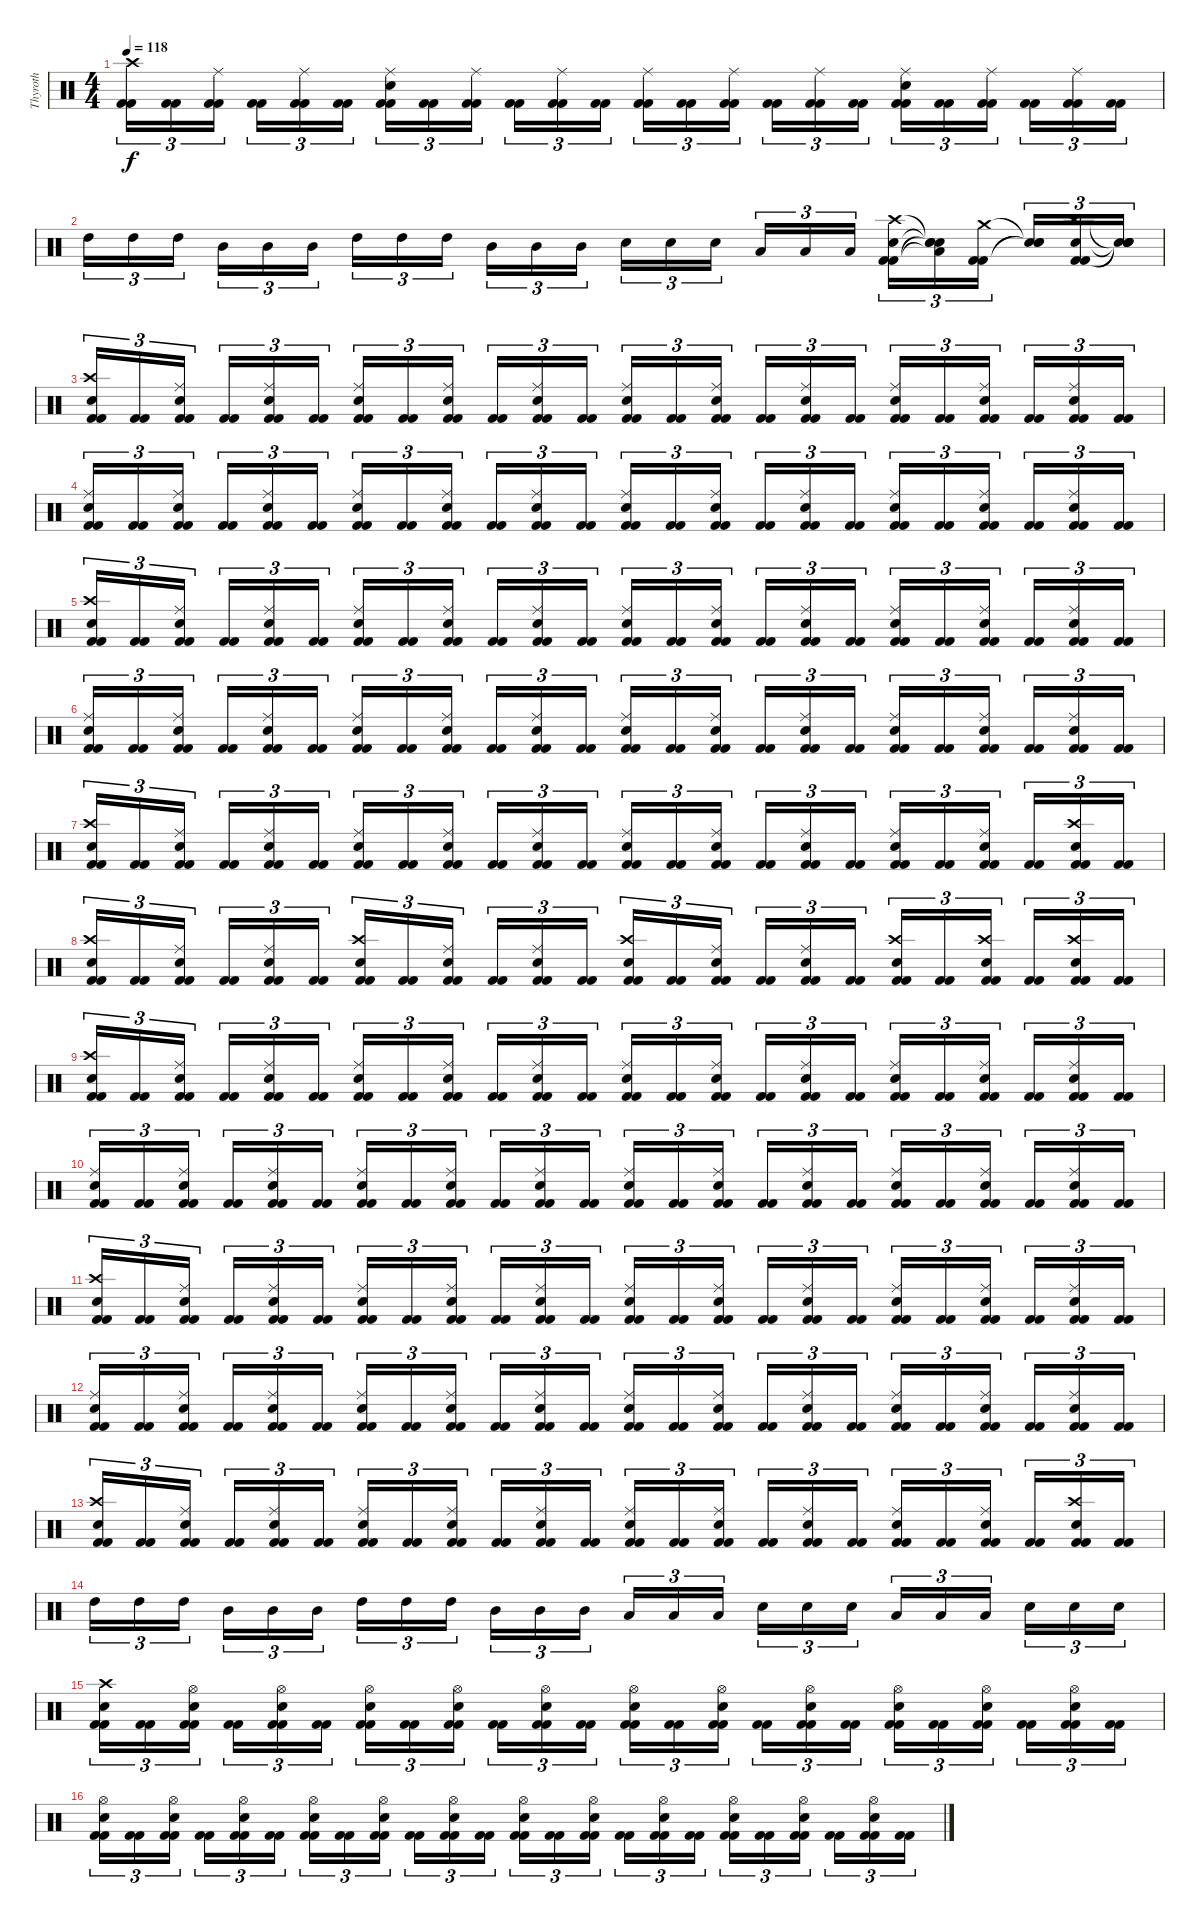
\track ("Thyroth" "Thyroth") {instrument percussion}
\staff {score}
\articulation defaults
\ts (4 4)
\tempo 118
\clef neutral
\ks c
("Kick (hit) 2" "Kick (hit) 2" "Crash high (hit)").16{tu (3 2) dy f} ("Kick (hit) 2" "Kick (hit) 2").16{tu (3 2)} ("Kick (hit) 2" "Kick (hit) 2" "Ride (middle)").16{tu (3 2)} ("Kick (hit) 2" "Kick (hit) 2").16{tu (3 2)} ("Kick (hit) 2" "Kick (hit) 2" "Ride (middle)").16{tu (3 2)} ("Kick (hit) 2" "Kick (hit) 2").16{tu (3 2)} ("Kick (hit) 2" "Kick (hit) 2" "Snare (hit) 2" "Ride (middle)").16{tu (3 2)} ("Kick (hit) 2" "Kick (hit) 2").16{tu (3 2)} ("Kick (hit) 2" "Kick (hit) 2" "Ride (middle)").16{tu (3 2)} ("Kick (hit) 2" "Kick (hit) 2").16{tu (3 2)} ("Kick (hit) 2" "Kick (hit) 2" "Ride (middle)").16{tu (3 2)} ("Kick (hit) 2" "Kick (hit) 2").16{tu (3 2)} ("Kick (hit) 2" "Kick (hit) 2" "Ride (middle)").16{tu (3 2)} ("Kick (hit) 2" "Kick (hit) 2").16{tu (3 2)} ("Kick (hit) 2" "Kick (hit) 2" "Ride (middle)").16{tu (3 2)} ("Kick (hit) 2" "Kick (hit) 2").16{tu (3 2)} ("Kick (hit) 2" "Kick (hit) 2" "Ride (middle)").16{tu (3 2)} ("Kick (hit) 2" "Kick (hit) 2").16{tu (3 2)} ("Kick (hit) 2" "Kick (hit) 2" "Snare (hit) 2" "Ride (middle)").16{tu (3 2)} ("Kick (hit) 2" "Kick (hit) 2").16{tu (3 2)} ("Kick (hit) 2" "Kick (hit) 2" "Ride (middle)").16{tu (3 2)} ("Kick (hit) 2" "Kick (hit) 2").16{tu (3 2)} ("Kick (hit) 2" "Kick (hit) 2" "Ride (middle)").16{tu (3 2)} ("Kick (hit) 2" "Kick (hit) 2").16{tu (3 2)} |
"High Tom (hit)".16{tu (3 2)} "High Tom (hit)".16{tu (3 2)} "High Tom (hit)".16{tu (3 2)} "Mid Tom (hit)".16{tu (3 2)} "Mid Tom (hit)".16{tu (3 2)} "Mid Tom (hit)".16{tu (3 2)} "High Tom (hit)".16{tu (3 2)} "High Tom (hit)".16{tu (3 2)} "High Tom (hit)".16{tu (3 2)} "Mid Tom (hit)".16{tu (3 2)} "Mid Tom (hit)".16{tu (3 2)} "Mid Tom (hit)".16{tu (3 2)} "Snare (hit) 2".16{tu (3 2)} "Snare (hit) 2".16{tu (3 2)} "Snare (hit) 2".16{tu (3 2)} "Low Tom (hit)".16{tu (3 2)} "Low Tom (hit)".16{tu (3 2)} "Low Tom (hit)".16{tu (3 2)} ("Kick (hit) 2" "Kick (hit) 2" "Snare (hit) 2" "Crash high (hit)").16{tu (3 2)} ("Snare (hit)"{t} "Low Tom (hit)"{t} "Snare (hit)"{t} "Snare (hit)"{t}).16{tu (3 2)} ("Kick (hit) 2" "Kick (hit) 2" "Crash medium (hit)").16{tu (3 2)} ("Snare (hit)"{t} "Snare (hit) 2"{t} "Snare (hit)"{t}).16{tu (3 2)} ("Kick (hit) 2" "Kick (hit) 2" "Snare (hit) 2" "Crash high (hit)").16{tu (3 2)} ("Snare (hit)"{t} "Snare (hit) 2"{t} "Snare (hit)"{t} "Snare (hit)"{t}).16{tu (3 2)} |
("Kick (hit) 2" "Kick (hit) 2" "Snare (hit) 2" "Crash high (hit)").16{tu (3 2)} ("Kick (hit) 2" "Kick (hit) 2").16{tu (3 2)} ("Kick (hit) 2" "Kick (hit) 2" "Snare (hit) 2" "Ride (middle)").16{tu (3 2)} ("Kick (hit) 2" "Kick (hit) 2").16{tu (3 2)} ("Kick (hit) 2" "Kick (hit) 2" "Snare (hit) 2" "Ride (middle)").16{tu (3 2)} ("Kick (hit) 2" "Kick (hit) 2").16{tu (3 2)} ("Kick (hit) 2" "Kick (hit) 2" "Snare (hit) 2" "Ride (middle)").16{tu (3 2)} ("Kick (hit) 2" "Kick (hit) 2").16{tu (3 2)} ("Kick (hit) 2" "Kick (hit) 2" "Snare (hit) 2" "Ride (middle)").16{tu (3 2)} ("Kick (hit) 2" "Kick (hit) 2").16{tu (3 2)} ("Kick (hit) 2" "Kick (hit) 2" "Snare (hit) 2" "Ride (middle)").16{tu (3 2)} ("Kick (hit) 2" "Kick (hit) 2").16{tu (3 2)} ("Kick (hit) 2" "Kick (hit) 2" "Snare (hit) 2" "Ride (middle)").16{tu (3 2)} ("Kick (hit) 2" "Kick (hit) 2").16{tu (3 2)} ("Kick (hit) 2" "Kick (hit) 2" "Snare (hit) 2" "Ride (middle)").16{tu (3 2)} ("Kick (hit) 2" "Kick (hit) 2").16{tu (3 2)} ("Kick (hit) 2" "Kick (hit) 2" "Snare (hit) 2" "Ride (middle)").16{tu (3 2)} ("Kick (hit) 2" "Kick (hit) 2").16{tu (3 2)} ("Kick (hit) 2" "Kick (hit) 2" "Snare (hit) 2" "Ride (middle)").16{tu (3 2)} ("Kick (hit) 2" "Kick (hit) 2").16{tu (3 2)} ("Kick (hit) 2" "Kick (hit) 2" "Snare (hit) 2" "Ride (middle)").16{tu (3 2)} ("Kick (hit) 2" "Kick (hit) 2").16{tu (3 2)} ("Kick (hit) 2" "Kick (hit) 2" "Snare (hit) 2" "Ride (middle)").16{tu (3 2)} ("Kick (hit) 2" "Kick (hit) 2").16{tu (3 2)} |
("Kick (hit) 2" "Kick (hit) 2" "Snare (hit) 2" "Ride (middle)").16{tu (3 2)} ("Kick (hit) 2" "Kick (hit) 2").16{tu (3 2)} ("Kick (hit) 2" "Kick (hit) 2" "Snare (hit) 2" "Ride (middle)").16{tu (3 2)} ("Kick (hit) 2" "Kick (hit) 2").16{tu (3 2)} ("Kick (hit) 2" "Kick (hit) 2" "Snare (hit) 2" "Ride (middle)").16{tu (3 2)} ("Kick (hit) 2" "Kick (hit) 2").16{tu (3 2)} ("Kick (hit) 2" "Kick (hit) 2" "Snare (hit) 2" "Ride (middle)").16{tu (3 2)} ("Kick (hit) 2" "Kick (hit) 2").16{tu (3 2)} ("Kick (hit) 2" "Kick (hit) 2" "Snare (hit) 2" "Ride (middle)").16{tu (3 2)} ("Kick (hit) 2" "Kick (hit) 2").16{tu (3 2)} ("Kick (hit) 2" "Kick (hit) 2" "Snare (hit) 2" "Ride (middle)").16{tu (3 2)} ("Kick (hit) 2" "Kick (hit) 2").16{tu (3 2)} ("Kick (hit) 2" "Kick (hit) 2" "Snare (hit) 2" "Ride (middle)").16{tu (3 2)} ("Kick (hit) 2" "Kick (hit) 2").16{tu (3 2)} ("Kick (hit) 2" "Kick (hit) 2" "Snare (hit) 2" "Ride (middle)").16{tu (3 2)} ("Kick (hit) 2" "Kick (hit) 2").16{tu (3 2)} ("Kick (hit) 2" "Kick (hit) 2" "Snare (hit) 2" "Ride (middle)").16{tu (3 2)} ("Kick (hit) 2" "Kick (hit) 2").16{tu (3 2)} ("Kick (hit) 2" "Kick (hit) 2" "Snare (hit) 2" "Ride (middle)").16{tu (3 2)} ("Kick (hit) 2" "Kick (hit) 2").16{tu (3 2)} ("Kick (hit) 2" "Kick (hit) 2" "Snare (hit) 2" "Ride (middle)").16{tu (3 2)} ("Kick (hit) 2" "Kick (hit) 2").16{tu (3 2)} ("Kick (hit) 2" "Kick (hit) 2" "Snare (hit) 2" "Ride (middle)").16{tu (3 2)} ("Kick (hit) 2" "Kick (hit) 2").16{tu (3 2)} |
("Kick (hit) 2" "Kick (hit) 2" "Snare (hit) 2" "Crash high (hit)").16{tu (3 2)} ("Kick (hit) 2" "Kick (hit) 2").16{tu (3 2)} ("Kick (hit) 2" "Kick (hit) 2" "Snare (hit) 2" "Ride (middle)").16{tu (3 2)} ("Kick (hit) 2" "Kick (hit) 2").16{tu (3 2)} ("Kick (hit) 2" "Kick (hit) 2" "Snare (hit) 2" "Ride (middle)").16{tu (3 2)} ("Kick (hit) 2" "Kick (hit) 2").16{tu (3 2)} ("Kick (hit) 2" "Kick (hit) 2" "Snare (hit) 2" "Ride (middle)").16{tu (3 2)} ("Kick (hit) 2" "Kick (hit) 2").16{tu (3 2)} ("Kick (hit) 2" "Kick (hit) 2" "Snare (hit) 2" "Ride (middle)").16{tu (3 2)} ("Kick (hit) 2" "Kick (hit) 2").16{tu (3 2)} ("Kick (hit) 2" "Kick (hit) 2" "Snare (hit) 2" "Ride (middle)").16{tu (3 2)} ("Kick (hit) 2" "Kick (hit) 2").16{tu (3 2)} ("Kick (hit) 2" "Kick (hit) 2" "Snare (hit) 2" "Ride (middle)").16{tu (3 2)} ("Kick (hit) 2" "Kick (hit) 2").16{tu (3 2)} ("Kick (hit) 2" "Kick (hit) 2" "Snare (hit) 2" "Ride (middle)").16{tu (3 2)} ("Kick (hit) 2" "Kick (hit) 2").16{tu (3 2)} ("Kick (hit) 2" "Kick (hit) 2" "Snare (hit) 2" "Ride (middle)").16{tu (3 2)} ("Kick (hit) 2" "Kick (hit) 2").16{tu (3 2)} ("Kick (hit) 2" "Kick (hit) 2" "Snare (hit) 2" "Ride (middle)").16{tu (3 2)} ("Kick (hit) 2" "Kick (hit) 2").16{tu (3 2)} ("Kick (hit) 2" "Kick (hit) 2" "Snare (hit) 2" "Ride (middle)").16{tu (3 2)} ("Kick (hit) 2" "Kick (hit) 2").16{tu (3 2)} ("Kick (hit) 2" "Kick (hit) 2" "Snare (hit) 2" "Ride (middle)").16{tu (3 2)} ("Kick (hit) 2" "Kick (hit) 2").16{tu (3 2)} |
("Kick (hit) 2" "Kick (hit) 2" "Snare (hit) 2" "Ride (middle)").16{tu (3 2)} ("Kick (hit) 2" "Kick (hit) 2").16{tu (3 2)} ("Kick (hit) 2" "Kick (hit) 2" "Snare (hit) 2" "Ride (middle)").16{tu (3 2)} ("Kick (hit) 2" "Kick (hit) 2").16{tu (3 2)} ("Kick (hit) 2" "Kick (hit) 2" "Snare (hit) 2" "Ride (middle)").16{tu (3 2)} ("Kick (hit) 2" "Kick (hit) 2").16{tu (3 2)} ("Kick (hit) 2" "Kick (hit) 2" "Snare (hit) 2" "Ride (middle)").16{tu (3 2)} ("Kick (hit) 2" "Kick (hit) 2").16{tu (3 2)} ("Kick (hit) 2" "Kick (hit) 2" "Snare (hit) 2" "Ride (middle)").16{tu (3 2)} ("Kick (hit) 2" "Kick (hit) 2").16{tu (3 2)} ("Kick (hit) 2" "Kick (hit) 2" "Snare (hit) 2" "Ride (middle)").16{tu (3 2)} ("Kick (hit) 2" "Kick (hit) 2").16{tu (3 2)} ("Kick (hit) 2" "Kick (hit) 2" "Snare (hit) 2" "Ride (middle)").16{tu (3 2)} ("Kick (hit) 2" "Kick (hit) 2").16{tu (3 2)} ("Kick (hit) 2" "Kick (hit) 2" "Snare (hit) 2" "Ride (middle)").16{tu (3 2)} ("Kick (hit) 2" "Kick (hit) 2").16{tu (3 2)} ("Kick (hit) 2" "Kick (hit) 2" "Snare (hit) 2" "Ride (middle)").16{tu (3 2)} ("Kick (hit) 2" "Kick (hit) 2").16{tu (3 2)} ("Kick (hit) 2" "Kick (hit) 2" "Snare (hit) 2" "Ride (middle)").16{tu (3 2)} ("Kick (hit) 2" "Kick (hit) 2").16{tu (3 2)} ("Kick (hit) 2" "Kick (hit) 2" "Snare (hit) 2" "Ride (middle)").16{tu (3 2)} ("Kick (hit) 2" "Kick (hit) 2").16{tu (3 2)} ("Kick (hit) 2" "Kick (hit) 2" "Snare (hit) 2" "Ride (middle)").16{tu (3 2)} ("Kick (hit) 2" "Kick (hit) 2").16{tu (3 2)} |
("Kick (hit) 2" "Kick (hit) 2" "Snare (hit) 2" "Crash high (hit)").16{tu (3 2)} ("Kick (hit) 2" "Kick (hit) 2").16{tu (3 2)} ("Kick (hit) 2" "Kick (hit) 2" "Snare (hit) 2" "Ride (middle)").16{tu (3 2)} ("Kick (hit) 2" "Kick (hit) 2").16{tu (3 2)} ("Kick (hit) 2" "Kick (hit) 2" "Snare (hit) 2" "Ride (middle)").16{tu (3 2)} ("Kick (hit) 2" "Kick (hit) 2").16{tu (3 2)} ("Kick (hit) 2" "Kick (hit) 2" "Snare (hit) 2" "Ride (middle)").16{tu (3 2)} ("Kick (hit) 2" "Kick (hit) 2").16{tu (3 2)} ("Kick (hit) 2" "Kick (hit) 2" "Snare (hit) 2" "Ride (middle)").16{tu (3 2)} ("Kick (hit) 2" "Kick (hit) 2").16{tu (3 2)} ("Kick (hit) 2" "Kick (hit) 2" "Snare (hit) 2" "Ride (middle)").16{tu (3 2)} ("Kick (hit) 2" "Kick (hit) 2").16{tu (3 2)} ("Kick (hit) 2" "Kick (hit) 2" "Snare (hit) 2" "Ride (middle)").16{tu (3 2)} ("Kick (hit) 2" "Kick (hit) 2").16{tu (3 2)} ("Kick (hit) 2" "Kick (hit) 2" "Snare (hit) 2" "Ride (middle)").16{tu (3 2)} ("Kick (hit) 2" "Kick (hit) 2").16{tu (3 2)} ("Kick (hit) 2" "Kick (hit) 2" "Snare (hit) 2" "Ride (middle)").16{tu (3 2)} ("Kick (hit) 2" "Kick (hit) 2").16{tu (3 2)} ("Kick (hit) 2" "Kick (hit) 2" "Snare (hit) 2" "Ride (middle)").16{tu (3 2)} ("Kick (hit) 2" "Kick (hit) 2").16{tu (3 2)} ("Kick (hit) 2" "Kick (hit) 2" "Snare (hit) 2" "Ride (middle)").16{tu (3 2)} ("Kick (hit) 2" "Kick (hit) 2").16{tu (3 2)} ("Kick (hit) 2" "Kick (hit) 2" "Snare (hit) 2" "Crash high (hit)").16{tu (3 2)} ("Kick (hit) 2" "Kick (hit) 2").16{tu (3 2)} |
("Kick (hit) 2" "Kick (hit) 2" "Snare (hit) 2" "Crash high (hit)").16{tu (3 2)} ("Kick (hit) 2" "Kick (hit) 2").16{tu (3 2)} ("Kick (hit) 2" "Kick (hit) 2" "Snare (hit) 2" "Ride (middle)").16{tu (3 2)} ("Kick (hit) 2" "Kick (hit) 2").16{tu (3 2)} ("Kick (hit) 2" "Kick (hit) 2" "Snare (hit) 2" "Ride (middle)").16{tu (3 2)} ("Kick (hit) 2" "Kick (hit) 2").16{tu (3 2)} ("Kick (hit) 2" "Kick (hit) 2" "Snare (hit) 2" "Crash high (hit)").16{tu (3 2)} ("Kick (hit) 2" "Kick (hit) 2").16{tu (3 2)} ("Kick (hit) 2" "Kick (hit) 2" "Snare (hit) 2" "Ride (middle)").16{tu (3 2)} ("Kick (hit) 2" "Kick (hit) 2").16{tu (3 2)} ("Kick (hit) 2" "Kick (hit) 2" "Snare (hit) 2" "Ride (middle)").16{tu (3 2)} ("Kick (hit) 2" "Kick (hit) 2").16{tu (3 2)} ("Kick (hit) 2" "Kick (hit) 2" "Snare (hit) 2" "Crash high (hit)").16{tu (3 2)} ("Kick (hit) 2" "Kick (hit) 2").16{tu (3 2)} ("Kick (hit) 2" "Kick (hit) 2" "Snare (hit) 2" "Ride (middle)").16{tu (3 2)} ("Kick (hit) 2" "Kick (hit) 2").16{tu (3 2)} ("Kick (hit) 2" "Kick (hit) 2" "Snare (hit) 2" "Ride (middle)").16{tu (3 2)} ("Kick (hit) 2" "Kick (hit) 2").16{tu (3 2)} ("Kick (hit) 2" "Kick (hit) 2" "Snare (hit) 2" "Crash high (hit)").16{tu (3 2)} ("Kick (hit) 2" "Kick (hit) 2").16{tu (3 2)} ("Kick (hit) 2" "Kick (hit) 2" "Snare (hit) 2" "Crash high (hit)").16{tu (3 2)} ("Kick (hit) 2" "Kick (hit) 2").16{tu (3 2)} ("Kick (hit) 2" "Kick (hit) 2" "Snare (hit) 2" "Crash high (hit)").16{tu (3 2)} ("Kick (hit) 2" "Kick (hit) 2").16{tu (3 2)} |
("Kick (hit) 2" "Kick (hit) 2" "Snare (hit) 2" "Crash high (hit)").16{tu (3 2)} ("Kick (hit) 2" "Kick (hit) 2").16{tu (3 2)} ("Kick (hit) 2" "Kick (hit) 2" "Snare (hit) 2" "Ride (middle)").16{tu (3 2)} ("Kick (hit) 2" "Kick (hit) 2").16{tu (3 2)} ("Kick (hit) 2" "Kick (hit) 2" "Snare (hit) 2" "Ride (middle)").16{tu (3 2)} ("Kick (hit) 2" "Kick (hit) 2").16{tu (3 2)} ("Kick (hit) 2" "Kick (hit) 2" "Snare (hit) 2" "Ride (middle)").16{tu (3 2)} ("Kick (hit) 2" "Kick (hit) 2").16{tu (3 2)} ("Kick (hit) 2" "Kick (hit) 2" "Snare (hit) 2" "Ride (middle)").16{tu (3 2)} ("Kick (hit) 2" "Kick (hit) 2").16{tu (3 2)} ("Kick (hit) 2" "Kick (hit) 2" "Snare (hit) 2" "Ride (middle)").16{tu (3 2)} ("Kick (hit) 2" "Kick (hit) 2").16{tu (3 2)} ("Kick (hit) 2" "Kick (hit) 2" "Snare (hit) 2" "Ride (middle)").16{tu (3 2)} ("Kick (hit) 2" "Kick (hit) 2").16{tu (3 2)} ("Kick (hit) 2" "Kick (hit) 2" "Snare (hit) 2" "Ride (middle)").16{tu (3 2)} ("Kick (hit) 2" "Kick (hit) 2").16{tu (3 2)} ("Kick (hit) 2" "Kick (hit) 2" "Snare (hit) 2" "Ride (middle)").16{tu (3 2)} ("Kick (hit) 2" "Kick (hit) 2").16{tu (3 2)} ("Kick (hit) 2" "Kick (hit) 2" "Snare (hit) 2" "Ride (middle)").16{tu (3 2)} ("Kick (hit) 2" "Kick (hit) 2").16{tu (3 2)} ("Kick (hit) 2" "Kick (hit) 2" "Snare (hit) 2" "Ride (middle)").16{tu (3 2)} ("Kick (hit) 2" "Kick (hit) 2").16{tu (3 2)} ("Kick (hit) 2" "Kick (hit) 2" "Snare (hit) 2" "Ride (middle)").16{tu (3 2)} ("Kick (hit) 2" "Kick (hit) 2").16{tu (3 2)} |
("Kick (hit) 2" "Kick (hit) 2" "Snare (hit) 2" "Ride (middle)").16{tu (3 2)} ("Kick (hit) 2" "Kick (hit) 2").16{tu (3 2)} ("Kick (hit) 2" "Kick (hit) 2" "Snare (hit) 2" "Ride (middle)").16{tu (3 2)} ("Kick (hit) 2" "Kick (hit) 2").16{tu (3 2)} ("Kick (hit) 2" "Kick (hit) 2" "Snare (hit) 2" "Ride (middle)").16{tu (3 2)} ("Kick (hit) 2" "Kick (hit) 2").16{tu (3 2)} ("Kick (hit) 2" "Kick (hit) 2" "Snare (hit) 2" "Ride (middle)").16{tu (3 2)} ("Kick (hit) 2" "Kick (hit) 2").16{tu (3 2)} ("Kick (hit) 2" "Kick (hit) 2" "Snare (hit) 2" "Ride (middle)").16{tu (3 2)} ("Kick (hit) 2" "Kick (hit) 2").16{tu (3 2)} ("Kick (hit) 2" "Kick (hit) 2" "Snare (hit) 2" "Ride (middle)").16{tu (3 2)} ("Kick (hit) 2" "Kick (hit) 2").16{tu (3 2)} ("Kick (hit) 2" "Kick (hit) 2" "Snare (hit) 2" "Ride (middle)").16{tu (3 2)} ("Kick (hit) 2" "Kick (hit) 2").16{tu (3 2)} ("Kick (hit) 2" "Kick (hit) 2" "Snare (hit) 2" "Ride (middle)").16{tu (3 2)} ("Kick (hit) 2" "Kick (hit) 2").16{tu (3 2)} ("Kick (hit) 2" "Kick (hit) 2" "Snare (hit) 2" "Ride (middle)").16{tu (3 2)} ("Kick (hit) 2" "Kick (hit) 2").16{tu (3 2)} ("Kick (hit) 2" "Kick (hit) 2" "Snare (hit) 2" "Ride (middle)").16{tu (3 2)} ("Kick (hit) 2" "Kick (hit) 2").16{tu (3 2)} ("Kick (hit) 2" "Kick (hit) 2" "Snare (hit) 2" "Ride (middle)").16{tu (3 2)} ("Kick (hit) 2" "Kick (hit) 2").16{tu (3 2)} ("Kick (hit) 2" "Kick (hit) 2" "Snare (hit) 2" "Ride (middle)").16{tu (3 2)} ("Kick (hit) 2" "Kick (hit) 2").16{tu (3 2)} |
("Kick (hit) 2" "Kick (hit) 2" "Snare (hit) 2" "Crash high (hit)").16{tu (3 2)} ("Kick (hit) 2" "Kick (hit) 2").16{tu (3 2)} ("Kick (hit) 2" "Kick (hit) 2" "Snare (hit) 2" "Ride (middle)").16{tu (3 2)} ("Kick (hit) 2" "Kick (hit) 2").16{tu (3 2)} ("Kick (hit) 2" "Kick (hit) 2" "Snare (hit) 2" "Ride (middle)").16{tu (3 2)} ("Kick (hit) 2" "Kick (hit) 2").16{tu (3 2)} ("Kick (hit) 2" "Kick (hit) 2" "Snare (hit) 2" "Ride (middle)").16{tu (3 2)} ("Kick (hit) 2" "Kick (hit) 2").16{tu (3 2)} ("Kick (hit) 2" "Kick (hit) 2" "Snare (hit) 2" "Ride (middle)").16{tu (3 2)} ("Kick (hit) 2" "Kick (hit) 2").16{tu (3 2)} ("Kick (hit) 2" "Kick (hit) 2" "Snare (hit) 2" "Ride (middle)").16{tu (3 2)} ("Kick (hit) 2" "Kick (hit) 2").16{tu (3 2)} ("Kick (hit) 2" "Kick (hit) 2" "Snare (hit) 2" "Ride (middle)").16{tu (3 2)} ("Kick (hit) 2" "Kick (hit) 2").16{tu (3 2)} ("Kick (hit) 2" "Kick (hit) 2" "Snare (hit) 2" "Ride (middle)").16{tu (3 2)} ("Kick (hit) 2" "Kick (hit) 2").16{tu (3 2)} ("Kick (hit) 2" "Kick (hit) 2" "Snare (hit) 2" "Ride (middle)").16{tu (3 2)} ("Kick (hit) 2" "Kick (hit) 2").16{tu (3 2)} ("Kick (hit) 2" "Kick (hit) 2" "Snare (hit) 2" "Ride (middle)").16{tu (3 2)} ("Kick (hit) 2" "Kick (hit) 2").16{tu (3 2)} ("Kick (hit) 2" "Kick (hit) 2" "Snare (hit) 2" "Ride (middle)").16{tu (3 2)} ("Kick (hit) 2" "Kick (hit) 2").16{tu (3 2)} ("Kick (hit) 2" "Kick (hit) 2" "Snare (hit) 2" "Ride (middle)").16{tu (3 2)} ("Kick (hit) 2" "Kick (hit) 2").16{tu (3 2)} |
("Kick (hit) 2" "Kick (hit) 2" "Snare (hit) 2" "Ride (middle)").16{tu (3 2)} ("Kick (hit) 2" "Kick (hit) 2").16{tu (3 2)} ("Kick (hit) 2" "Kick (hit) 2" "Snare (hit) 2" "Ride (middle)").16{tu (3 2)} ("Kick (hit) 2" "Kick (hit) 2").16{tu (3 2)} ("Kick (hit) 2" "Kick (hit) 2" "Snare (hit) 2" "Ride (middle)").16{tu (3 2)} ("Kick (hit) 2" "Kick (hit) 2").16{tu (3 2)} ("Kick (hit) 2" "Kick (hit) 2" "Snare (hit) 2" "Ride (middle)").16{tu (3 2)} ("Kick (hit) 2" "Kick (hit) 2").16{tu (3 2)} ("Kick (hit) 2" "Kick (hit) 2" "Snare (hit) 2" "Ride (middle)").16{tu (3 2)} ("Kick (hit) 2" "Kick (hit) 2").16{tu (3 2)} ("Kick (hit) 2" "Kick (hit) 2" "Snare (hit) 2" "Ride (middle)").16{tu (3 2)} ("Kick (hit) 2" "Kick (hit) 2").16{tu (3 2)} ("Kick (hit) 2" "Kick (hit) 2" "Snare (hit) 2" "Ride (middle)").16{tu (3 2)} ("Kick (hit) 2" "Kick (hit) 2").16{tu (3 2)} ("Kick (hit) 2" "Kick (hit) 2" "Snare (hit) 2" "Ride (middle)").16{tu (3 2)} ("Kick (hit) 2" "Kick (hit) 2").16{tu (3 2)} ("Kick (hit) 2" "Kick (hit) 2" "Snare (hit) 2" "Ride (middle)").16{tu (3 2)} ("Kick (hit) 2" "Kick (hit) 2").16{tu (3 2)} ("Kick (hit) 2" "Kick (hit) 2" "Snare (hit) 2" "Ride (middle)").16{tu (3 2)} ("Kick (hit) 2" "Kick (hit) 2").16{tu (3 2)} ("Kick (hit) 2" "Kick (hit) 2" "Snare (hit) 2" "Ride (middle)").16{tu (3 2)} ("Kick (hit) 2" "Kick (hit) 2").16{tu (3 2)} ("Kick (hit) 2" "Kick (hit) 2" "Snare (hit) 2" "Ride (middle)").16{tu (3 2)} ("Kick (hit) 2" "Kick (hit) 2").16{tu (3 2)} |
("Kick (hit) 2" "Kick (hit) 2" "Snare (hit) 2" "Crash high (hit)").16{tu (3 2)} ("Kick (hit) 2" "Kick (hit) 2").16{tu (3 2)} ("Kick (hit) 2" "Kick (hit) 2" "Snare (hit) 2" "Ride (middle)").16{tu (3 2)} ("Kick (hit) 2" "Kick (hit) 2").16{tu (3 2)} ("Kick (hit) 2" "Kick (hit) 2" "Snare (hit) 2" "Ride (middle)").16{tu (3 2)} ("Kick (hit) 2" "Kick (hit) 2").16{tu (3 2)} ("Kick (hit) 2" "Kick (hit) 2" "Snare (hit) 2" "Ride (middle)").16{tu (3 2)} ("Kick (hit) 2" "Kick (hit) 2").16{tu (3 2)} ("Kick (hit) 2" "Kick (hit) 2" "Snare (hit) 2" "Ride (middle)").16{tu (3 2)} ("Kick (hit) 2" "Kick (hit) 2").16{tu (3 2)} ("Kick (hit) 2" "Kick (hit) 2" "Snare (hit) 2" "Ride (middle)").16{tu (3 2)} ("Kick (hit) 2" "Kick (hit) 2").16{tu (3 2)} ("Kick (hit) 2" "Kick (hit) 2" "Snare (hit) 2" "Ride (middle)").16{tu (3 2)} ("Kick (hit) 2" "Kick (hit) 2").16{tu (3 2)} ("Kick (hit) 2" "Kick (hit) 2" "Snare (hit) 2" "Ride (middle)").16{tu (3 2)} ("Kick (hit) 2" "Kick (hit) 2").16{tu (3 2)} ("Kick (hit) 2" "Kick (hit) 2" "Snare (hit) 2" "Ride (middle)").16{tu (3 2)} ("Kick (hit) 2" "Kick (hit) 2").16{tu (3 2)} ("Kick (hit) 2" "Kick (hit) 2" "Snare (hit) 2" "Ride (middle)").16{tu (3 2)} ("Kick (hit) 2" "Kick (hit) 2").16{tu (3 2)} ("Kick (hit) 2" "Kick (hit) 2" "Snare (hit) 2" "Ride (middle)").16{tu (3 2)} ("Kick (hit) 2" "Kick (hit) 2").16{tu (3 2)} ("Kick (hit) 2" "Kick (hit) 2" "Snare (hit) 2" "Crash high (hit)").16{tu (3 2)} ("Kick (hit) 2" "Kick (hit) 2").16{tu (3 2)} |
"High Tom (hit)".16{tu (3 2)} "High Tom (hit)".16{tu (3 2)} "High Tom (hit)".16{tu (3 2)} "Mid Tom (hit)".16{tu (3 2)} "Mid Tom (hit)".16{tu (3 2)} "Mid Tom (hit)".16{tu (3 2)} "High Tom (hit)".16{tu (3 2)} "High Tom (hit)".16{tu (3 2)} "High Tom (hit)".16{tu (3 2)} "Mid Tom (hit)".16{tu (3 2)} "Mid Tom (hit)".16{tu (3 2)} "Mid Tom (hit)".16{tu (3 2)} "Low Tom (hit)".16{tu (3 2)} "Low Tom (hit)".16{tu (3 2)} "Low Tom (hit)".16{tu (3 2)} "Snare (hit) 2".16{tu (3 2)} "Snare (hit) 2".16{tu (3 2)} "Snare (hit) 2".16{tu (3 2)} "Low Tom (hit)".16{tu (3 2)} "Low Tom (hit)".16{tu (3 2)} "Low Tom (hit)".16{tu (3 2)} "Snare (hit) 2".16{tu (3 2)} "Snare (hit) 2".16{tu (3 2)} "Snare (hit) 2".16{tu (3 2)} |
("Kick (hit) 2" "Kick (hit) 2" "Snare (hit) 2" "Crash high (hit)").16{tu (3 2)} ("Kick (hit) 2" "Kick (hit) 2").16{tu (3 2)} ("Kick (hit) 2" "Kick (hit) 2" "Snare (hit) 2" "Hi-Hat (open)").16{tu (3 2)} ("Kick (hit) 2" "Kick (hit) 2").16{tu (3 2)} ("Kick (hit) 2" "Kick (hit) 2" "Snare (hit) 2" "Hi-Hat (open)").16{tu (3 2)} ("Kick (hit) 2" "Kick (hit) 2").16{tu (3 2)} ("Kick (hit) 2" "Kick (hit) 2" "Snare (hit) 2" "Hi-Hat (open)").16{tu (3 2)} ("Kick (hit) 2" "Kick (hit) 2").16{tu (3 2)} ("Kick (hit) 2" "Kick (hit) 2" "Snare (hit) 2" "Hi-Hat (open)").16{tu (3 2)} ("Kick (hit) 2" "Kick (hit) 2").16{tu (3 2)} ("Kick (hit) 2" "Kick (hit) 2" "Snare (hit) 2" "Hi-Hat (open)").16{tu (3 2)} ("Kick (hit) 2" "Kick (hit) 2").16{tu (3 2)} ("Kick (hit) 2" "Kick (hit) 2" "Snare (hit) 2" "Hi-Hat (open)").16{tu (3 2)} ("Kick (hit) 2" "Kick (hit) 2").16{tu (3 2)} ("Kick (hit) 2" "Kick (hit) 2" "Snare (hit) 2" "Hi-Hat (open)").16{tu (3 2)} ("Kick (hit) 2" "Kick (hit) 2").16{tu (3 2)} ("Kick (hit) 2" "Kick (hit) 2" "Snare (hit) 2" "Hi-Hat (open)").16{tu (3 2)} ("Kick (hit) 2" "Kick (hit) 2").16{tu (3 2)} ("Kick (hit) 2" "Kick (hit) 2" "Snare (hit) 2" "Hi-Hat (open)").16{tu (3 2)} ("Kick (hit) 2" "Kick (hit) 2").16{tu (3 2)} ("Kick (hit) 2" "Kick (hit) 2" "Snare (hit) 2" "Hi-Hat (open)").16{tu (3 2)} ("Kick (hit) 2" "Kick (hit) 2").16{tu (3 2)} ("Kick (hit) 2" "Kick (hit) 2" "Snare (hit) 2" "Hi-Hat (open)").16{tu (3 2)} ("Kick (hit) 2" "Kick (hit) 2").16{tu (3 2)} |
("Kick (hit) 2" "Kick (hit) 2" "Snare (hit) 2" "Hi-Hat (open)").16{tu (3 2)} ("Kick (hit) 2" "Kick (hit) 2").16{tu (3 2)} ("Kick (hit) 2" "Kick (hit) 2" "Snare (hit) 2" "Hi-Hat (open)").16{tu (3 2)} ("Kick (hit) 2" "Kick (hit) 2").16{tu (3 2)} ("Kick (hit) 2" "Kick (hit) 2" "Snare (hit) 2" "Hi-Hat (open)").16{tu (3 2)} ("Kick (hit) 2" "Kick (hit) 2").16{tu (3 2)} ("Kick (hit) 2" "Kick (hit) 2" "Snare (hit) 2" "Hi-Hat (open)").16{tu (3 2)} ("Kick (hit) 2" "Kick (hit) 2").16{tu (3 2)} ("Kick (hit) 2" "Kick (hit) 2" "Snare (hit) 2" "Hi-Hat (open)").16{tu (3 2)} ("Kick (hit) 2" "Kick (hit) 2").16{tu (3 2)} ("Kick (hit) 2" "Kick (hit) 2" "Snare (hit) 2" "Hi-Hat (open)").16{tu (3 2)} ("Kick (hit) 2" "Kick (hit) 2").16{tu (3 2)} ("Kick (hit) 2" "Kick (hit) 2" "Snare (hit) 2" "Hi-Hat (open)").16{tu (3 2)} ("Kick (hit) 2" "Kick (hit) 2").16{tu (3 2)} ("Kick (hit) 2" "Kick (hit) 2" "Snare (hit) 2" "Hi-Hat (open)").16{tu (3 2)} ("Kick (hit) 2" "Kick (hit) 2").16{tu (3 2)} ("Kick (hit) 2" "Kick (hit) 2" "Snare (hit) 2" "Hi-Hat (open)").16{tu (3 2)} ("Kick (hit) 2" "Kick (hit) 2").16{tu (3 2)} ("Kick (hit) 2" "Kick (hit) 2" "Snare (hit) 2" "Hi-Hat (open)").16{tu (3 2)} ("Kick (hit) 2" "Kick (hit) 2").16{tu (3 2)} ("Kick (hit) 2" "Kick (hit) 2" "Snare (hit) 2" "Hi-Hat (open)").16{tu (3 2)} ("Kick (hit) 2" "Kick (hit) 2").16{tu (3 2)} ("Kick (hit) 2" "Kick (hit) 2" "Snare (hit) 2" "Hi-Hat (open)").16{tu (3 2)} ("Kick (hit) 2" "Kick (hit) 2").16{tu (3 2)}
